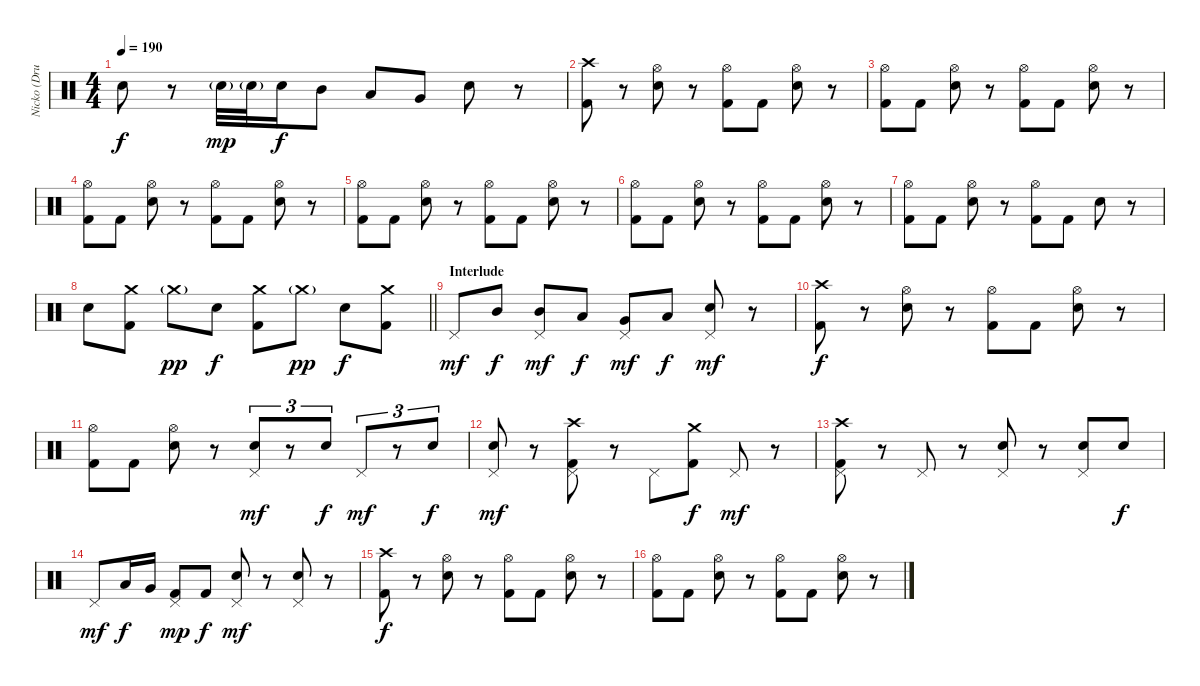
\track ("Nicko (Drums)" "Nicko (Dru") {instrument percussion}
\staff {score}
\articulation defaults
\ts (4 4)
\tempo 190
\clef neutral
\ks c "Snare (hit) 2".8{dy f}
r.8 "Snare (hit) 2"{g}.32{dy mp} "Snare (hit) 2"{g}.32 "Snare (hit) 2".16{dy f} "Mid Tom (hit)".8 "Low Tom (hit)".8 "Very Low Tom (hit)".8 "Snare (hit) 2".8 r.8 |
("Crash high (hit)" "Kick (hit) 2").8 r.8 ("Hi-Hat (open)" "Snare (hit) 2").8 r.8 ("Hi-Hat (open)" "Kick (hit) 2").8 "Kick (hit) 2".8 ("Hi-Hat (open)" "Snare (hit) 2").8 r.8 |
("Hi-Hat (open)" "Kick (hit) 2").8 "Kick (hit) 2".8 ("Hi-Hat (open)" "Snare (hit) 2").8 r.8 ("Hi-Hat (open)" "Kick (hit) 2").8 "Kick (hit) 2".8 ("Hi-Hat (open)" "Snare (hit) 2").8 r.8 |
("Hi-Hat (open)" "Kick (hit) 2").8 "Kick (hit) 2".8 ("Hi-Hat (open)" "Snare (hit) 2").8 r.8 ("Hi-Hat (open)" "Kick (hit) 2").8 "Kick (hit) 2".8 ("Hi-Hat (open)" "Snare (hit) 2").8 r.8 |
("Hi-Hat (open)" "Kick (hit) 2").8 "Kick (hit) 2".8 ("Hi-Hat (open)" "Snare (hit) 2").8 r.8 ("Hi-Hat (open)" "Kick (hit) 2").8 "Kick (hit) 2".8 ("Hi-Hat (open)" "Snare (hit) 2").8 r.8 |
("Hi-Hat (open)" "Kick (hit) 2").8 "Kick (hit) 2".8 ("Hi-Hat (open)" "Snare (hit) 2").8 r.8 ("Hi-Hat (open)" "Kick (hit) 2").8 "Kick (hit) 2".8 ("Hi-Hat (open)" "Snare (hit) 2").8 r.8 |
("Hi-Hat (open)" "Kick (hit) 2").8 "Kick (hit) 2".8 ("Hi-Hat (open)" "Snare (hit) 2").8 r.8 ("Hi-Hat (open)" "Kick (hit) 2").8 "Kick (hit) 2".8 "Snare (hit) 2".8 r.8 |
\barLineRight lightlight "Snare (hit) 2".8
("Crash medium (hit)" "Kick (hit) 2").8 "Crash medium (hit)"{g}.8{dy pp} "Snare (hit) 2".8{dy f} ("Crash medium (hit)" "Kick (hit) 2").8 "Crash medium (hit)"{g}.8{dy pp} "Snare (hit) 2".8{dy f} ("Crash medium (hit)" "Kick (hit) 2").8 |
\section ("" "Interlude")
"Pedal Hi-Hat (hit)".8{dy mf} "Mid Tom (hit)".8{dy f} ("Pedal Hi-Hat (hit)" "Mid Tom (hit)").8{dy mf} "Low Tom (hit)".8{dy f} ("Pedal Hi-Hat (hit)" "Very Low Tom (hit)").8{dy mf} "Low Floor Tom (hit)".8{dy f} ("Pedal Hi-Hat (hit)" "Snare (hit) 2").8{dy mf} r.8 |
("Crash high (hit)" "Kick (hit) 2").8{dy f} r.8 ("Hi-Hat (open)" "Snare (hit) 2").8 r.8 ("Hi-Hat (open)" "Kick (hit) 2").8 "Kick (hit) 2".8 ("Hi-Hat (open)" "Snare (hit) 2").8 r.8 |
("Hi-Hat (open)" "Kick (hit) 2").8 "Kick (hit) 2".8 ("Hi-Hat (open)" "Snare (hit) 2").8 r.8 ("Pedal Hi-Hat (hit)" "Snare (hit) 2").8{tu (3 2) dy mf} r.8{tu (3 2)} "Snare (hit) 2".8{tu (3 2) dy f} "Pedal Hi-Hat (hit)".8{tu (3 2) dy mf} r.8{tu (3 2)} "Snare (hit) 2".8{tu (3 2) dy f} |
("Pedal Hi-Hat (hit)" "Snare (hit) 2").8{dy mf} r.8 ("Crash high (hit)" "Pedal Hi-Hat (hit)" "Kick (hit) 2").8 r.8 "Pedal Hi-Hat (hit)".8 ("Crash medium (hit)" "Kick (hit) 2").8{dy f} "Pedal Hi-Hat (hit)".8{dy mf} r.8 |
("Crash high (hit)" "Pedal Hi-Hat (hit)" "Kick (hit) 2").8 r.8 "Pedal Hi-Hat (hit)".8 r.8 ("Pedal Hi-Hat (hit)" "Snare (hit) 2").8 r.8 ("Pedal Hi-Hat (hit)" "Snare (hit) 2").8 "Snare (hit) 2".8{dy f} |
"Pedal Hi-Hat (hit)".8{dy mf} "Low Tom (hit)".16{dy f} "Very Low Tom (hit)".16 ("Pedal Hi-Hat (hit)" "Kick (hit) 2").8{dy mp} "Kick (hit) 2".8{dy f} ("Pedal Hi-Hat (hit)" "Snare (hit) 2").8{dy mf} r.8 ("Pedal Hi-Hat (hit)" "Snare (hit) 2").8 r.8 |
("Crash high (hit)" "Kick (hit) 2").8{dy f} r.8 ("Hi-Hat (open)" "Snare (hit) 2").8 r.8 ("Hi-Hat (open)" "Kick (hit) 2").8 "Kick (hit) 2".8 ("Hi-Hat (open)" "Snare (hit) 2").8 r.8 |
("Hi-Hat (open)" "Kick (hit) 2").8 "Kick (hit) 2".8 ("Hi-Hat (open)" "Snare (hit) 2").8 r.8 ("Hi-Hat (open)" "Kick (hit) 2").8 "Kick (hit) 2".8 ("Hi-Hat (open)" "Snare (hit) 2").8 r.8
